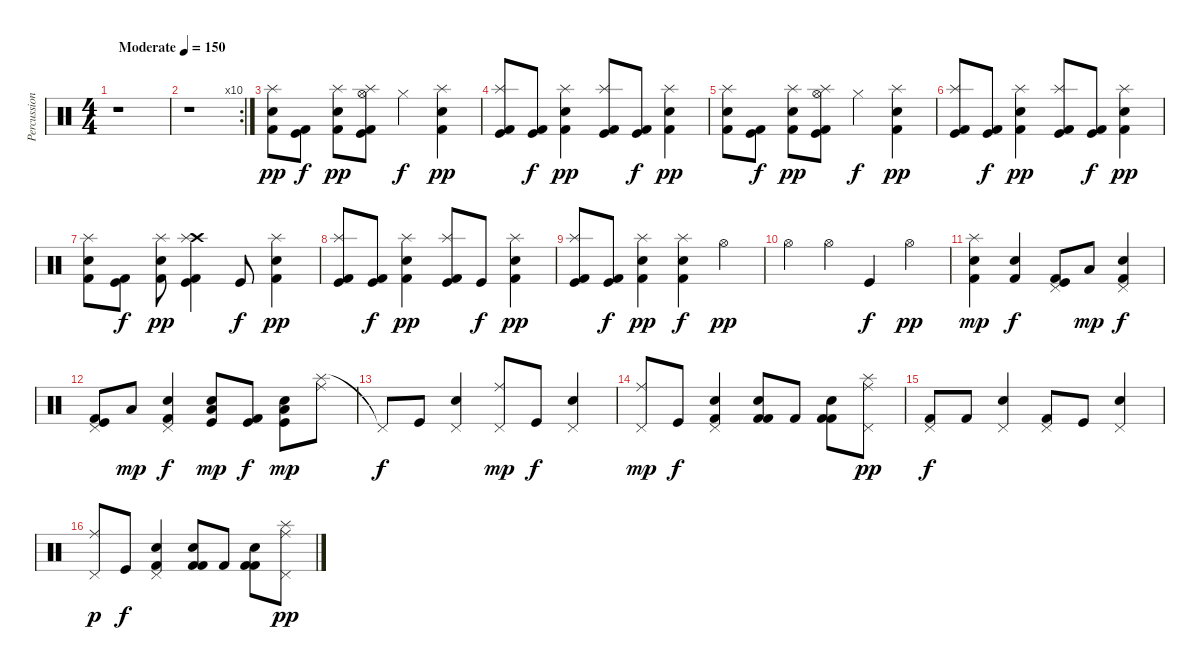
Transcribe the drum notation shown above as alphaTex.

\track ("Percussion" "Percussion") {instrument percussion}
\staff {score}
\articulation defaults
\ts (4 4)
\tempo (150 "Moderate")
\clef neutral
\ks c
r.1{dy pp} |
\rc 10
r.1 |
("Kick (hit) 2" "Electric Snare (hit)" "Splash (hit)").8 ("Kick (hit) 2" "Kick (hit)").8{dy f} ("Kick (hit) 2" "Electric Snare (hit)" "Splash (hit)").8{dy pp} ("Kick (hit) 2" "Kick (hit)" "Hi-Hat (open)" "Splash (hit)").8 "Hi-Hat (closed)".4{dy f} ("Kick (hit) 2" "Electric Snare (hit)" "Splash (hit)").4{dy pp} |
("Kick (hit) 2" "Kick (hit)" "Splash (hit)").8 ("Kick (hit) 2" "Kick (hit)").8{dy f} ("Kick (hit) 2" "Electric Snare (hit)" "Splash (hit)").4{dy pp} ("Kick (hit) 2" "Kick (hit)" "Splash (hit)").8 ("Kick (hit) 2" "Kick (hit)").8{dy f} ("Kick (hit) 2" "Electric Snare (hit)" "Splash (hit)").4{dy pp} |
("Kick (hit) 2" "Electric Snare (hit)" "Splash (hit)").8 ("Kick (hit) 2" "Kick (hit)").8{dy f} ("Kick (hit) 2" "Electric Snare (hit)" "Splash (hit)").8{dy pp} ("Kick (hit) 2" "Kick (hit)" "Hi-Hat (open)" "Splash (hit)").8 "Hi-Hat (closed)".4{dy f} ("Kick (hit) 2" "Electric Snare (hit)" "Splash (hit)").4{dy pp} |
("Kick (hit) 2" "Kick (hit)" "Splash (hit)").8 ("Kick (hit) 2" "Kick (hit)").8{dy f} ("Kick (hit) 2" "Electric Snare (hit)" "Splash (hit)").4{dy pp} ("Kick (hit) 2" "Kick (hit)" "Splash (hit)").8 ("Kick (hit) 2" "Kick (hit)").8{dy f} ("Kick (hit) 2" "Electric Snare (hit)" "Splash (hit)").4{dy pp} |
("Kick (hit) 2" "Electric Snare (hit)" "Splash (hit)").8 ("Kick (hit) 2" "Kick (hit)").8{dy f} ("Kick (hit) 2" "Electric Snare (hit)" "Splash (hit)").8{dy pp} ("Kick (hit) 2" "Kick (hit)" "Crash high (hit)" "Splash (hit)").4 "Kick (hit)".8{dy f} ("Kick (hit) 2" "Electric Snare (hit)" "Splash (hit)").4{dy pp} |
("Kick (hit) 2" "Kick (hit)" "Splash (hit)").8 ("Kick (hit) 2" "Kick (hit)").8{dy f} ("Kick (hit) 2" "Electric Snare (hit)" "Splash (hit)").4{dy pp} ("Kick (hit) 2" "Kick (hit)" "Splash (hit)").8 "Kick (hit)".8{dy f} ("Kick (hit) 2" "Electric Snare (hit)" "Splash (hit)").4{dy pp} |
("Kick (hit) 2" "Kick (hit)" "Splash (hit)").8 ("Kick (hit) 2" "Kick (hit)").8{dy f} ("Kick (hit) 2" "Electric Snare (hit)" "Splash (hit)").4{dy pp} ("Kick (hit) 2" "Electric Snare (hit)" "Splash (hit)").4{dy f} "Hi-Hat (open)".4{dy pp} |
"Hi-Hat (open)".4 "Hi-Hat (open)".4 "Kick (hit)".4{dy f} "Hi-Hat (open)".4{dy pp} |
("Electric Snare (hit)" "Kick (hit) 2" "Splash (hit)").4{dy mp} ("Kick (hit) 2" "Electric Snare (hit)").4{dy f} ("Kick (hit) 2" "Kick (hit)" "Pedal Hi-Hat (hit)").8 "Low Floor Tom (hit)".8{dy mp} ("Electric Snare (hit)" "Kick (hit) 2" "Pedal Hi-Hat (hit)").4{dy f} |
("Kick (hit) 2" "Kick (hit)" "Pedal Hi-Hat (hit)").8 "Low Floor Tom (hit)".8{dy mp} ("Electric Snare (hit)" "Kick (hit) 2" "Pedal Hi-Hat (hit)").4{dy f} ("Electric Snare (hit)" "Kick (hit)" "Low Floor Tom (hit)").8{dy mp} ("Kick (hit) 2" "Kick (hit)").8{dy f} ("Electric Snare (hit)" "Kick (hit)" "Low Floor Tom (hit)").8{dy mp} ("Splash (hit)" "Ride (middle)").8 |
"Pedal Hi-Hat (hit)"{t}.8{dy f} "Kick (hit)".8 ("Electric Snare (hit)" "Pedal Hi-Hat (hit)").4 ("Pedal Hi-Hat (hit)" "Ride (middle)").8{dy mp} "Kick (hit)".8{dy f} ("Electric Snare (hit)" "Pedal Hi-Hat (hit)").4 |
("Pedal Hi-Hat (hit)" "Ride (middle)").8{dy mp} "Kick (hit)".8{dy f} ("Electric Snare (hit)" "Kick (hit) 2" "Pedal Hi-Hat (hit)").4 ("Kick (hit) 2" "Kick (hit) 2" "Electric Snare (hit)").8 "Kick (hit) 2".8 ("Kick (hit) 2" "Kick (hit) 2" "Electric Snare (hit)").8 ("Pedal Hi-Hat (hit)" "Ride (middle)" "Splash (hit)").8{dy pp} |
("Kick (hit) 2" "Pedal Hi-Hat (hit)").8{dy f} "Kick (hit) 2".8 ("Electric Snare (hit)" "Pedal Hi-Hat (hit)").4 ("Kick (hit) 2" "Pedal Hi-Hat (hit)").8 "Kick (hit)".8 ("Electric Snare (hit)" "Pedal Hi-Hat (hit)").4 |
("Pedal Hi-Hat (hit)" "Ride (middle)").8{dy p} "Kick (hit)".8{dy f} ("Electric Snare (hit)" "Kick (hit) 2" "Pedal Hi-Hat (hit)").4 ("Kick (hit) 2" "Kick (hit) 2" "Electric Snare (hit)").8 "Kick (hit) 2".8 ("Kick (hit) 2" "Kick (hit) 2" "Electric Snare (hit)").8 ("Pedal Hi-Hat (hit)" "Ride (middle)" "Splash (hit)").8{dy pp}
